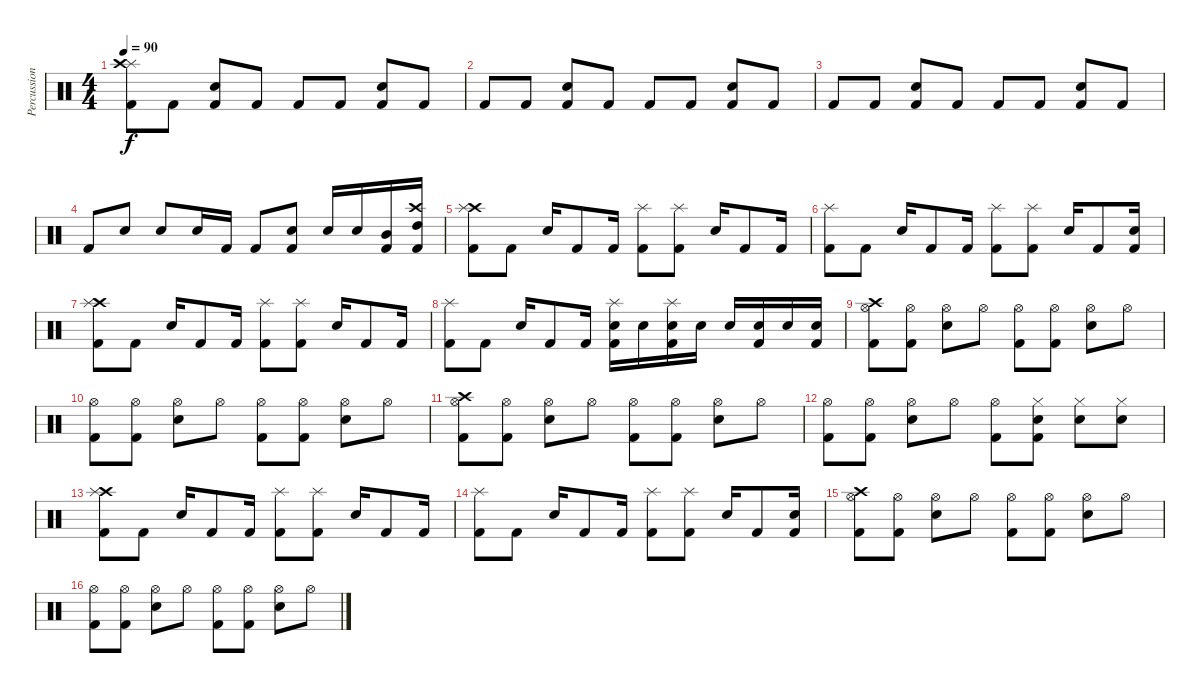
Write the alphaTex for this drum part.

\track ("Percussion" "Percussion") {instrument percussion}
\staff {score}
\articulation defaults
\ts (4 4)
\tempo 90
\clef neutral
\ks c
("Splash (hit)" "Kick (hit) 2" "Crash high (hit)").8{dy f} "Kick (hit) 2".8 ("Electric Snare (hit)" "Kick (hit) 2").8 "Kick (hit) 2".8 "Kick (hit) 2".8 "Kick (hit) 2".8 ("Electric Snare (hit)" "Kick (hit) 2").8 "Kick (hit) 2".8 |
"Kick (hit) 2".8 "Kick (hit) 2".8 ("Electric Snare (hit)" "Kick (hit) 2").8 "Kick (hit) 2".8 "Kick (hit) 2".8 "Kick (hit) 2".8 ("Electric Snare (hit)" "Kick (hit) 2").8 "Kick (hit) 2".8 |
"Kick (hit) 2".8 "Kick (hit) 2".8 ("Electric Snare (hit)" "Kick (hit) 2").8 "Kick (hit) 2".8 "Kick (hit) 2".8 "Kick (hit) 2".8 ("Electric Snare (hit)" "Kick (hit) 2").8 "Kick (hit) 2".8 |
"Kick (hit) 2".8 "Electric Snare (hit)".8 "Electric Snare (hit)".8 "Electric Snare (hit)".16 "Kick (hit) 2".16 "Kick (hit) 2".8 ("Electric Snare (hit)" "Kick (hit) 2").8 "Electric Snare (hit)".16 "Electric Snare (hit)".16 ("Mid Tom (hit)" "Kick (hit) 2").16 ("High Tom (hit)" "Kick (hit) 2" "Crash high (hit)").16 |
("Crash high (hit)" "Kick (hit) 2" "Splash (hit)").8 "Kick (hit) 2".8 "Electric Snare (hit)".16 "Kick (hit) 2".8 "Kick (hit) 2".16 ("Kick (hit) 2" "Splash (hit)").8 ("Kick (hit) 2" "Splash (hit)").8 "Electric Snare (hit)".16 "Kick (hit) 2".8 "Kick (hit) 2".16 |
("Kick (hit) 2" "Splash (hit)").8 "Kick (hit) 2".8 "Electric Snare (hit)".16 "Kick (hit) 2".8 "Kick (hit) 2".16 ("Kick (hit) 2" "Splash (hit)").8 ("Kick (hit) 2" "Splash (hit)").8 "Electric Snare (hit)".16 "Kick (hit) 2".8 ("Electric Snare (hit)" "Kick (hit) 2").16 |
("Crash high (hit)" "Kick (hit) 2" "Splash (hit)").8 "Kick (hit) 2".8 "Electric Snare (hit)".16 "Kick (hit) 2".8 "Kick (hit) 2".16 ("Kick (hit) 2" "Splash (hit)").8 ("Kick (hit) 2" "Splash (hit)").8 "Electric Snare (hit)".16 "Kick (hit) 2".8 "Kick (hit) 2".16 |
("Kick (hit) 2" "Splash (hit)").8 "Kick (hit) 2".8 "Electric Snare (hit)".16 "Kick (hit) 2".8 "Kick (hit) 2".16 ("Electric Snare (hit)" "Kick (hit) 2" "Splash (hit)").16 "Electric Snare (hit)".16 ("Electric Snare (hit)" "Kick (hit) 2" "Splash (hit)").16 "Electric Snare (hit)".16 "Electric Snare (hit)".16 ("Electric Snare (hit)" "Kick (hit) 2").16 "Electric Snare (hit)".16 ("Electric Snare (hit)" "Kick (hit) 2").16 |
("Hi-Hat (open)" "Kick (hit) 2" "Crash high (hit)").8 ("Hi-Hat (open)" "Kick (hit) 2").8 ("Hi-Hat (open)" "Electric Snare (hit)").8 "Hi-Hat (open)".8 ("Hi-Hat (open)" "Kick (hit) 2").8 ("Hi-Hat (open)" "Kick (hit) 2").8 ("Hi-Hat (open)" "Electric Snare (hit)").8 "Hi-Hat (open)".8 |
("Hi-Hat (open)" "Kick (hit) 2").8 ("Hi-Hat (open)" "Kick (hit) 2").8 ("Hi-Hat (open)" "Electric Snare (hit)").8 "Hi-Hat (open)".8 ("Hi-Hat (open)" "Kick (hit) 2").8 ("Hi-Hat (open)" "Kick (hit) 2").8 ("Hi-Hat (open)" "Electric Snare (hit)").8 "Hi-Hat (open)".8 |
("Hi-Hat (open)" "Kick (hit) 2" "Crash high (hit)").8 ("Hi-Hat (open)" "Kick (hit) 2").8 ("Hi-Hat (open)" "Electric Snare (hit)").8 "Hi-Hat (open)".8 ("Hi-Hat (open)" "Kick (hit) 2").8 ("Hi-Hat (open)" "Kick (hit) 2").8 ("Hi-Hat (open)" "Electric Snare (hit)").8 "Hi-Hat (open)".8 |
("Hi-Hat (open)" "Kick (hit) 2").8 ("Hi-Hat (open)" "Kick (hit) 2").8 ("Hi-Hat (open)" "Electric Snare (hit)").8 "Hi-Hat (open)".8 ("Hi-Hat (open)" "Kick (hit) 2").8 ("Electric Snare (hit)" "Kick (hit) 2" "Hi-Hat (closed)").8 ("Electric Snare (hit)" "Hi-Hat (closed)").8 ("Electric Snare (hit)" "Hi-Hat (closed)").8 |
("Crash high (hit)" "Kick (hit) 2" "Splash (hit)").8 "Kick (hit) 2".8 "Electric Snare (hit)".16 "Kick (hit) 2".8 "Kick (hit) 2".16 ("Kick (hit) 2" "Splash (hit)").8 ("Kick (hit) 2" "Splash (hit)").8 "Electric Snare (hit)".16 "Kick (hit) 2".8 "Kick (hit) 2".16 |
("Kick (hit) 2" "Splash (hit)").8 "Kick (hit) 2".8 "Electric Snare (hit)".16 "Kick (hit) 2".8 "Kick (hit) 2".16 ("Kick (hit) 2" "Splash (hit)").8 ("Kick (hit) 2" "Splash (hit)").8 "Electric Snare (hit)".16 "Kick (hit) 2".8 ("Electric Snare (hit)" "Kick (hit) 2").16 |
("Hi-Hat (open)" "Kick (hit) 2" "Crash high (hit)").8 ("Hi-Hat (open)" "Kick (hit) 2").8 ("Hi-Hat (open)" "Electric Snare (hit)").8 "Hi-Hat (open)".8 ("Hi-Hat (open)" "Kick (hit) 2").8 ("Hi-Hat (open)" "Kick (hit) 2").8 ("Hi-Hat (open)" "Electric Snare (hit)").8 "Hi-Hat (open)".8 |
("Hi-Hat (open)" "Kick (hit) 2").8 ("Hi-Hat (open)" "Kick (hit) 2").8 ("Hi-Hat (open)" "Electric Snare (hit)").8 "Hi-Hat (open)".8 ("Hi-Hat (open)" "Kick (hit) 2").8 ("Hi-Hat (open)" "Kick (hit) 2").8 ("Hi-Hat (open)" "Electric Snare (hit)").8 "Hi-Hat (open)".8
